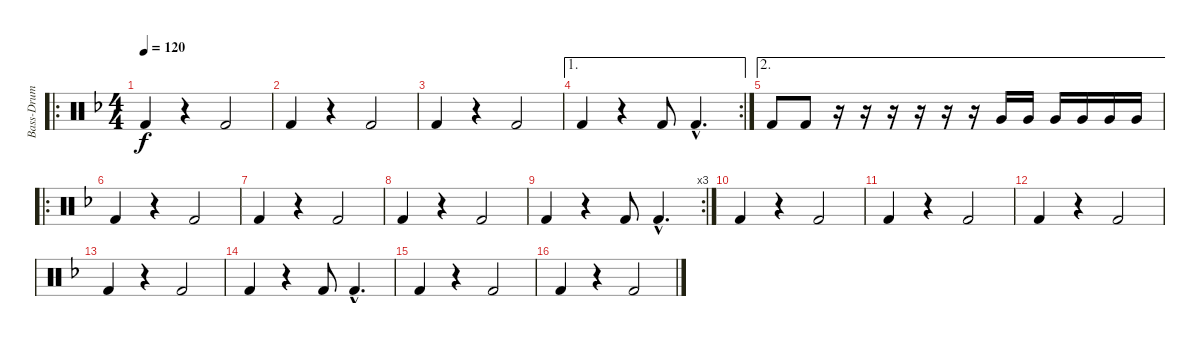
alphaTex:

\track ("Bass-Drum" "Bass-Drum") {instrument percussion}
\staff {score}
\articulation defaults
\ro
\ts (4 4)
\tempo 120
\clef neutral
\ks f "Kick (hit) 2".4{dy f}
r.4 "Kick (hit) 2".2 |
"Kick (hit) 2".4 r.4 "Kick (hit) 2".2 |
"Kick (hit) 2".4 r.4 "Kick (hit) 2".2 |
\ae 1
\rc 2 "Kick (hit) 2".4
r.4 "Kick (hit) 2".8 "Kick (hit) 2"{hac}.4{d} |
\ae 2 "Kick (hit) 2".8 "Kick (hit) 2".8
r.16 r.16 r.16 r.16 r.16 r.16 "Very Low Tom (hit)".16 "Very Low Tom (hit)".16 "Very Low Tom (hit)".16 "Very Low Tom (hit)".16 "Very Low Tom (hit)".16 "Very Low Tom (hit)".16 |
\ro "Kick (hit) 2".4
r.4 "Kick (hit) 2".2 |
"Kick (hit) 2".4 r.4 "Kick (hit) 2".2 |
"Kick (hit) 2".4 r.4 "Kick (hit) 2".2 |
\rc 3 "Kick (hit) 2".4
r.4 "Kick (hit) 2".8 "Kick (hit) 2"{hac}.4{d} |
"Kick (hit) 2".4 r.4 "Kick (hit) 2".2 |
"Kick (hit) 2".4 r.4 "Kick (hit) 2".2 |
"Kick (hit) 2".4 r.4 "Kick (hit) 2".2 |
"Kick (hit) 2".4 r.4 "Kick (hit) 2".2 |
"Kick (hit) 2".4 r.4 "Kick (hit) 2".8 "Kick (hit) 2"{hac}.4{d} |
"Kick (hit) 2".4 r.4 "Kick (hit) 2".2 |
"Kick (hit) 2".4 r.4 "Kick (hit) 2".2
